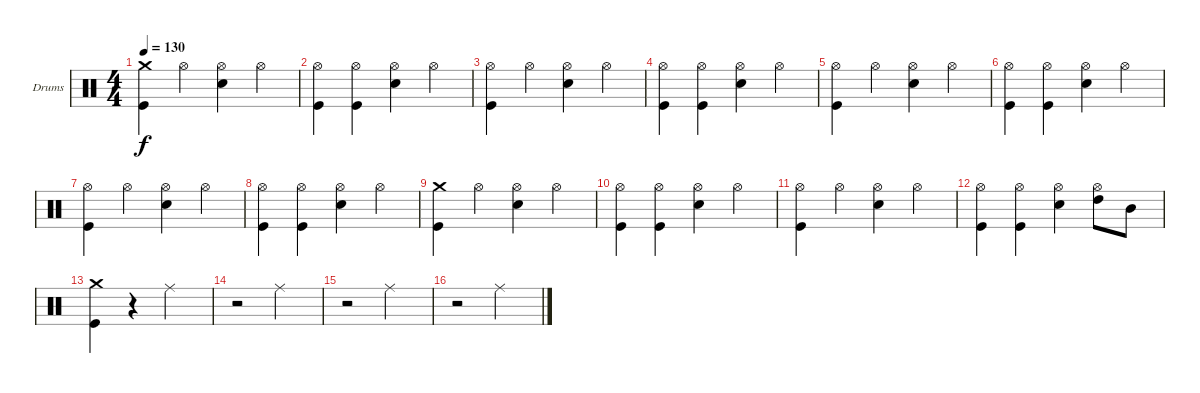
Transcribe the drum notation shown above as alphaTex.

\bracketExtendMode groupsimilarinstruments
\firstSystemTrackNameOrientation horizontal
\otherSystemsTrackNameOrientation horizontal
\track ("Drumkit" "Drums") {instrument percussion}
\staff {score}
\articulation defaults
\ts (4 4)
\tempo 130
\clef neutral
\ks c
("Crash medium (hit)" "Kick (hit)").4{dy f} "Hi-Hat (open)".4 ("Hi-Hat (open)" "Snare (hit) 2").4 "Hi-Hat (open)".4 |
("Hi-Hat (open)" "Kick (hit)").4 ("Hi-Hat (open)" "Kick (hit)").4 ("Hi-Hat (open)" "Snare (hit) 2").4 "Hi-Hat (open)".4 |
("Hi-Hat (open)" "Kick (hit)").4 "Hi-Hat (open)".4 ("Hi-Hat (open)" "Snare (hit) 2").4 "Hi-Hat (open)".4 |
("Hi-Hat (open)" "Kick (hit)").4 ("Hi-Hat (open)" "Kick (hit)").4 ("Hi-Hat (open)" "Snare (hit) 2").4 "Hi-Hat (open)".4 |
("Hi-Hat (open)" "Kick (hit)").4 "Hi-Hat (open)".4 ("Hi-Hat (open)" "Snare (hit) 2").4 "Hi-Hat (open)".4 |
("Hi-Hat (open)" "Kick (hit)").4 ("Hi-Hat (open)" "Kick (hit)").4 ("Hi-Hat (open)" "Snare (hit) 2").4 "Hi-Hat (open)".4 |
("Hi-Hat (open)" "Kick (hit)").4 "Hi-Hat (open)".4 ("Hi-Hat (open)" "Snare (hit) 2").4 "Hi-Hat (open)".4 |
("Hi-Hat (open)" "Kick (hit)").4 ("Hi-Hat (open)" "Kick (hit)").4 ("Hi-Hat (open)" "Snare (hit) 2").4 "Hi-Hat (open)".4 |
("Crash medium (hit)" "Kick (hit)").4 "Hi-Hat (open)".4 ("Hi-Hat (open)" "Snare (hit) 2").4 "Hi-Hat (open)".4 |
("Hi-Hat (open)" "Kick (hit)").4 ("Hi-Hat (open)" "Kick (hit)").4 ("Hi-Hat (open)" "Snare (hit) 2").4 "Hi-Hat (open)".4 |
("Hi-Hat (open)" "Kick (hit)").4 "Hi-Hat (open)".4 ("Hi-Hat (open)" "Snare (hit) 2").4 "Hi-Hat (open)".4 |
("Hi-Hat (open)" "Kick (hit)").4 ("Hi-Hat (open)" "Kick (hit)").4 ("Hi-Hat (open)" "Snare (hit) 2").4 ("Hi-Hat (open)" "High Tom (hit)").8 "Mid Tom (hit)".8 |
("Crash medium (hit)" "Kick (hit)").4 r.4 "Ride (middle)".2 |
r.2 "Ride (middle)".2 |
r.2 "Ride (middle)".2 |
r.2 "Ride (middle)".2
